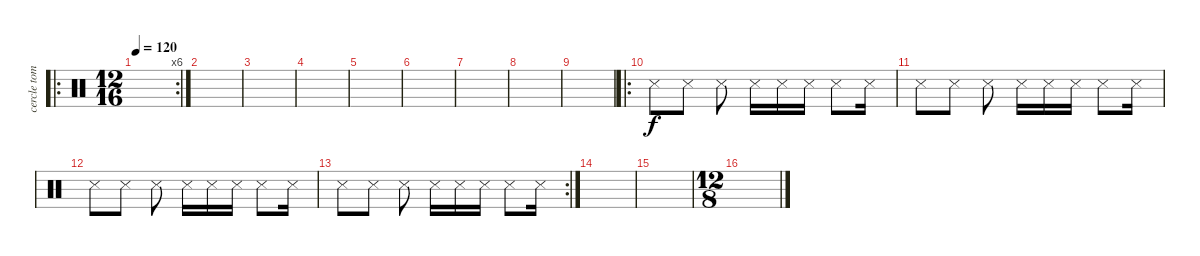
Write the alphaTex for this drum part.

\track ("cercle toms" "cercle tom") {instrument percussion}
\staff {score}
\articulation defaults
\ro
\rc 6
\ts (12 16)
\tempo 120
\clef neutral
\ks c
|
|
|
|
|
|
|
|
|
\ro "Snare (side stick) 3".8{volume 13} "Snare (side stick) 3".8 "Snare (side stick) 3".8 "Snare (side stick) 3".16 "Snare (side stick) 3".16 "Snare (side stick) 3".16 "Snare (side stick) 3".8 "Snare (side stick) 3".16
|
"Snare (side stick) 3".8 "Snare (side stick) 3".8 "Snare (side stick) 3".8 "Snare (side stick) 3".16 "Snare (side stick) 3".16 "Snare (side stick) 3".16 "Snare (side stick) 3".8 "Snare (side stick) 3".16 |
"Snare (side stick) 3".8 "Snare (side stick) 3".8 "Snare (side stick) 3".8 "Snare (side stick) 3".16 "Snare (side stick) 3".16 "Snare (side stick) 3".16 "Snare (side stick) 3".8 "Snare (side stick) 3".16 |
\rc 2 "Snare (side stick) 3".8 "Snare (side stick) 3".8 "Snare (side stick) 3".8 "Snare (side stick) 3".16 "Snare (side stick) 3".16 "Snare (side stick) 3".16 "Snare (side stick) 3".8 "Snare (side stick) 3".16
|
|
|
\ts (12 8)
